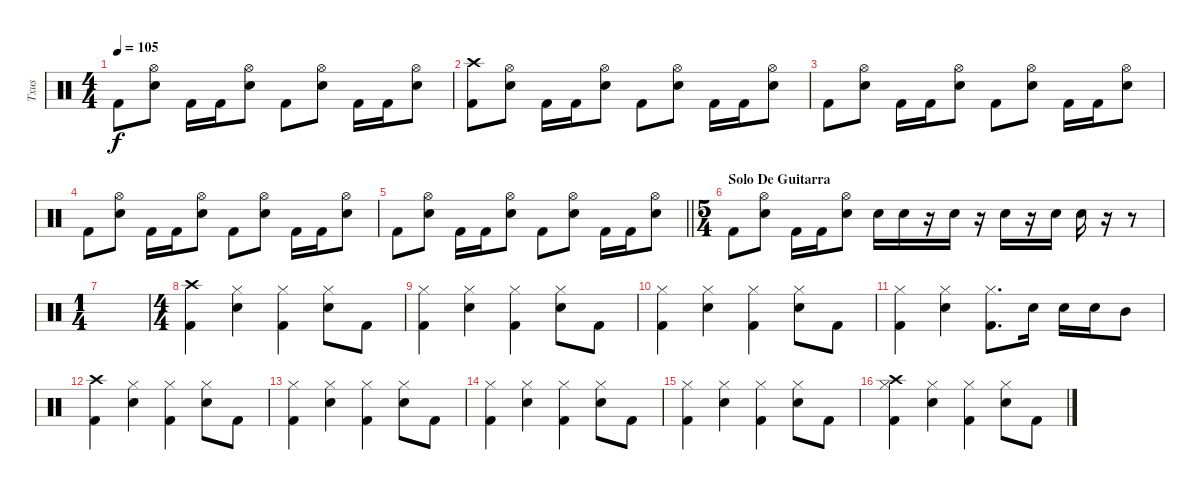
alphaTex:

\track ("Txus" "Txus") {instrument percussion}
\staff {score}
\articulation defaults
\ts (4 4)
\tempo 105
\clef neutral
\ks c "Kick (hit) 2".8{dy f}
("Electric Snare (hit)" "Hi-Hat (open)").8 "Kick (hit) 2".16 "Kick (hit) 2".16 ("Electric Snare (hit)" "Hi-Hat (open)").8 "Kick (hit) 2".8 ("Electric Snare (hit)" "Hi-Hat (open)").8 "Kick (hit) 2".16 "Kick (hit) 2".16 ("Electric Snare (hit)" "Hi-Hat (open)").8 |
("Kick (hit) 2" "Crash high (hit)").8 ("Electric Snare (hit)" "Hi-Hat (open)").8 "Kick (hit) 2".16 "Kick (hit) 2".16 ("Electric Snare (hit)" "Hi-Hat (open)").8 "Kick (hit) 2".8 ("Electric Snare (hit)" "Hi-Hat (open)").8 "Kick (hit) 2".16 "Kick (hit) 2".16 ("Electric Snare (hit)" "Hi-Hat (open)").8 |
"Kick (hit) 2".8 ("Electric Snare (hit)" "Hi-Hat (open)").8 "Kick (hit) 2".16 "Kick (hit) 2".16 ("Electric Snare (hit)" "Hi-Hat (open)").8 "Kick (hit) 2".8 ("Electric Snare (hit)" "Hi-Hat (open)").8 "Kick (hit) 2".16 "Kick (hit) 2".16 ("Electric Snare (hit)" "Hi-Hat (open)").8 |
"Kick (hit) 2".8 ("Electric Snare (hit)" "Hi-Hat (open)").8 "Kick (hit) 2".16 "Kick (hit) 2".16 ("Electric Snare (hit)" "Hi-Hat (open)").8 "Kick (hit) 2".8 ("Electric Snare (hit)" "Hi-Hat (open)").8 "Kick (hit) 2".16 "Kick (hit) 2".16 ("Electric Snare (hit)" "Hi-Hat (open)").8 |
\barLineRight lightlight "Kick (hit) 2".8
("Electric Snare (hit)" "Hi-Hat (open)").8 "Kick (hit) 2".16 "Kick (hit) 2".16 ("Electric Snare (hit)" "Hi-Hat (open)").8 "Kick (hit) 2".8 ("Electric Snare (hit)" "Hi-Hat (open)").8 "Kick (hit) 2".16 "Kick (hit) 2".16 ("Electric Snare (hit)" "Hi-Hat (open)").8 |
\ts (5 4)
\section ("" "Solo De Guitarra")
"Kick (hit) 2".8 ("Electric Snare (hit)" "Hi-Hat (open)").8 "Kick (hit) 2".16 "Kick (hit) 2".16 ("Electric Snare (hit)" "Hi-Hat (open)").8 "Electric Snare (hit)".16 "Electric Snare (hit)".16 r.16 "Electric Snare (hit)".16 r.16 "Electric Snare (hit)".16 r.16 "Electric Snare (hit)".16 "Electric Snare (hit)".16 r.16 r.8 |
\ts (1 4)
|
\ts (4 4)
("Kick (hit) 2" "Crash high (hit)").4 ("Electric Snare (hit)" "Hi-Hat (closed)").4 ("Kick (hit) 2" "Hi-Hat (closed)").4 ("Electric Snare (hit)" "Hi-Hat (closed)").8 "Kick (hit) 2".8 |
("Kick (hit) 2" "Hi-Hat (closed)").4 ("Electric Snare (hit)" "Hi-Hat (closed)").4 ("Kick (hit) 2" "Hi-Hat (closed)").4 ("Electric Snare (hit)" "Hi-Hat (closed)").8 "Kick (hit) 2".8 |
("Kick (hit) 2" "Hi-Hat (closed)").4 ("Electric Snare (hit)" "Hi-Hat (closed)").4 ("Kick (hit) 2" "Hi-Hat (closed)").4 ("Electric Snare (hit)" "Hi-Hat (closed)").8 "Kick (hit) 2".8 |
("Kick (hit) 2" "Hi-Hat (closed)").4 ("Electric Snare (hit)" "Hi-Hat (closed)").4 ("Kick (hit) 2" "Hi-Hat (closed)").8{d} "Electric Snare (hit)".16 "Electric Snare (hit)".16 "Electric Snare (hit)".16 "Mid Tom (hit)".8 |
("Kick (hit) 2" "Crash high (hit)").4 ("Electric Snare (hit)" "Hi-Hat (closed)").4 ("Kick (hit) 2" "Hi-Hat (closed)").4 ("Electric Snare (hit)" "Hi-Hat (closed)").8 "Kick (hit) 2".8 |
("Kick (hit) 2" "Hi-Hat (closed)").4 ("Electric Snare (hit)" "Hi-Hat (closed)").4 ("Kick (hit) 2" "Hi-Hat (closed)").4 ("Electric Snare (hit)" "Hi-Hat (closed)").8 "Kick (hit) 2".8 |
("Kick (hit) 2" "Hi-Hat (closed)").4 ("Electric Snare (hit)" "Hi-Hat (closed)").4 ("Kick (hit) 2" "Hi-Hat (closed)").4 ("Electric Snare (hit)" "Hi-Hat (closed)").8 "Kick (hit) 2".8 |
("Kick (hit) 2" "Hi-Hat (closed)").4 ("Electric Snare (hit)" "Hi-Hat (closed)").4 ("Kick (hit) 2" "Hi-Hat (closed)").4 ("Electric Snare (hit)" "Hi-Hat (closed)").8 "Kick (hit) 2".8 |
("Kick (hit) 2" "Hi-Hat (closed)" "Crash high (hit)").4 ("Electric Snare (hit)" "Hi-Hat (closed)").4 ("Kick (hit) 2" "Hi-Hat (closed)").4 ("Electric Snare (hit)" "Hi-Hat (closed)").8 "Kick (hit) 2".8
